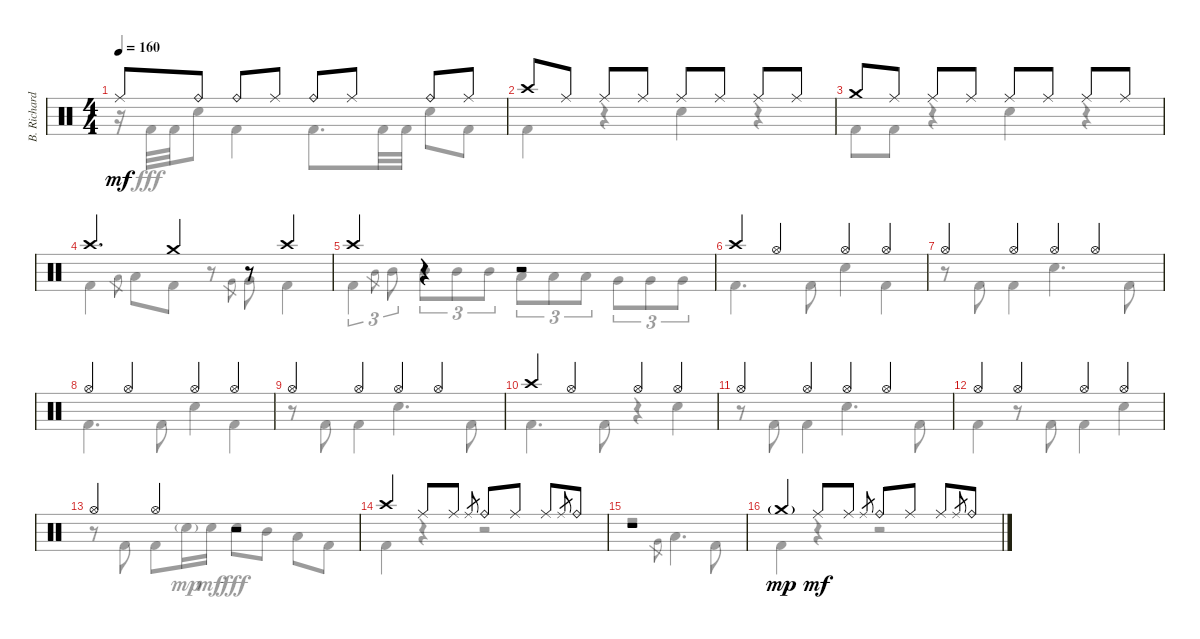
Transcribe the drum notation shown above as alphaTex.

\track ("B. Richardson Drums" "B. Richard") {instrument percussion}
\staff {score}
\articulation defaults
\voice
\ts (4 4)
\tempo 160
\clef neutral
\ks c "Ride (middle)".8{dy mf} "Ride (bell)".8 "Ride (bell)".8 "Ride (middle)".8 "Ride (bell)".8 "Ride (middle)".8 "Ride (bell)".8 "Ride (middle)".8
|
"Crash high (hit)".8 "Ride (middle)".8 "Ride (middle)".8 "Ride (middle)".8 "Ride (middle)".8 "Ride (middle)".8 "Ride (middle)".8 "Ride (middle)".8 |
"Crash medium (hit)".8 "Ride (middle)".8 "Ride (middle)".8 "Ride (middle)".8 "Ride (middle)".8 "Ride (middle)".8 "Ride (middle)".8 "Ride (middle)".8 |
"Crash high (hit)".4{d} "Crash medium (hit)".4 r.8 "Crash high (hit)".4 |
"Crash high (hit)".4 r.4 r.2 |
"Crash high (hit)".4 "Hi-Hat (open)".4 "Hi-Hat (open)".4 "Hi-Hat (open)".4 |
"Hi-Hat (open)".4 "Hi-Hat (open)".4 "Hi-Hat (open)".4 "Hi-Hat (open)".4 |
"Hi-Hat (open)".4 "Hi-Hat (open)".4 "Hi-Hat (open)".4 "Hi-Hat (open)".4 |
"Hi-Hat (open)".4 "Hi-Hat (open)".4 "Hi-Hat (open)".4 "Hi-Hat (open)".4 |
"Crash high (hit)".4 "Hi-Hat (open)".4 "Hi-Hat (open)".4 "Hi-Hat (open)".4 |
"Hi-Hat (open)".4 "Hi-Hat (open)".4 "Hi-Hat (open)".4 "Hi-Hat (open)".4 |
"Hi-Hat (open)".4 "Hi-Hat (open)".4 "Hi-Hat (open)".4 "Hi-Hat (open)".4 |
"Hi-Hat (open)".4 "Hi-Hat (open)".4 r.2 |
"Crash high (hit)".4 "Ride (middle)".8 "Ride (middle)".8 "Ride (middle)".8{gr} "Ride (bell)".8 "Ride (middle)".8 "Ride (middle)".8 "Ride (middle)".8{gr} "Ride (bell)".8 |
r.1 |
"Crash medium (hit)"{g}.4{dy mp} "Ride (middle)".8{dy mf} "Ride (middle)".8 "Ride (middle)".8{gr} "Ride (bell)".8 "Ride (middle)".8 "Ride (middle)".8 "Ride (middle)".8{gr} "Ride (bell)".8
\voice
\clef neutral
\ottava regular
\simile none
\ks c
r.16{dy fff} "Kick (hit) 2".32 "Kick (hit) 2".32 "Electric Snare (hit)".8 "Kick (hit) 2".4 "Kick (hit) 2".8{d} "Kick (hit) 2".32 "Kick (hit) 2".32 "Electric Snare (hit)".8 "Kick (hit) 2".8 |
"Kick (hit) 2".4 r.4 "Electric Snare (hit)".4 r.4 |
"Kick (hit) 2".8 "Kick (hit) 2".8 r.4 "Electric Snare (hit)".4 r.4 |
"Kick (hit) 2".4 "Low Tom (hit)".8{gr} "Low Tom (hit)".8 "Kick (hit) 2".8 r.8 "Very Low Tom (hit)".8{gr} "Very Low Tom (hit)".8 "Kick (hit) 2".4 |
"Kick (hit) 2".4{tu (3 2)} "Mid Tom (hit)".8{gr} "Mid Tom (hit)".8{tu (3 2)} "Mid Tom (hit)".8{tu (3 2)} "Mid Tom (hit)".8{tu (3 2)} "Mid Tom (hit)".8{tu (3 2)} "Low Tom (hit)".8{tu (3 2)} "Low Tom (hit)".8{tu (3 2)} "Low Tom (hit)".8{tu (3 2)} "Very Low Tom (hit)".8{tu (3 2)} "Very Low Tom (hit)".8{tu (3 2)} "Very Low Tom (hit)".8{tu (3 2)} |
"Kick (hit) 2".4{d} "Kick (hit) 2".8 "Electric Snare (hit)".4 "Kick (hit) 2".4 |
r.8 "Kick (hit) 2".8 "Kick (hit) 2".4 "Electric Snare (hit)".4{d} "Kick (hit) 2".8 |
"Kick (hit) 2".4{d} "Kick (hit) 2".8 "Electric Snare (hit)".4 "Kick (hit) 2".4 |
r.8 "Kick (hit) 2".8 "Kick (hit) 2".4 "Electric Snare (hit)".4{d} "Kick (hit) 2".8 |
"Kick (hit) 2".4{d} "Kick (hit) 2".8 r.4 "Electric Snare (hit)".4 |
r.8 "Kick (hit) 2".8 "Kick (hit) 2".4 "Electric Snare (hit)".4{d} "Kick (hit) 2".8 |
"Kick (hit) 2".4 r.8 "Kick (hit) 2".8 "Kick (hit) 2".4 "Electric Snare (hit)".4 |
r.8 "Kick (hit) 2".8 "Kick (hit) 2".8 "Electric Snare (hit)"{g}.16{dy mp} "Electric Snare (hit)".16{dy mf} "Electric Snare (hit)".8{dy fff} "Mid Tom (hit)".8 "Low Tom (hit)".8 "Kick (hit) 2".8 |
"Kick (hit) 2".4 r.4 r.2 |
r.2 "Very Low Tom (hit)".8{gr} "Low Tom (hit)".4{d} "Kick (hit) 2".8 |
"Kick (hit) 2".4 r.4 r.2
